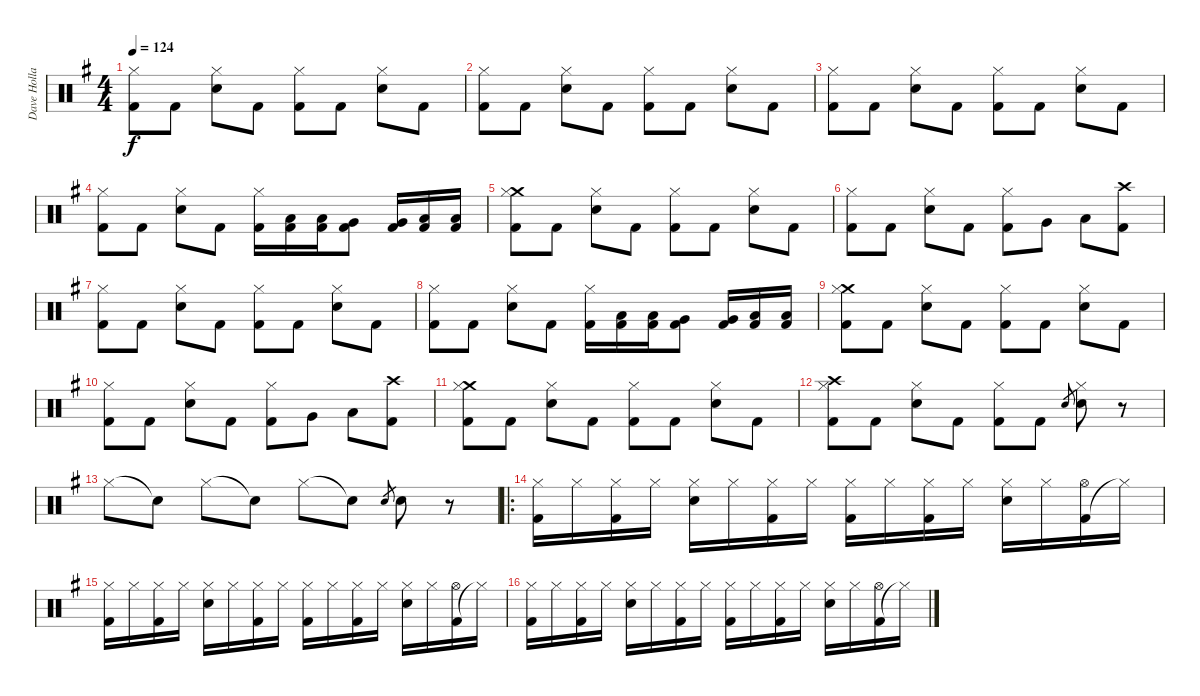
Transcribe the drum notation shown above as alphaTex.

\track ("Dave Holland" "Dave Holla") {instrument percussion}
\staff {score}
\articulation defaults
\ts (4 4)
\tempo 124
\clef neutral
\ks g
("Kick (hit) 2" "Hi-Hat (closed)").8{dy f} "Kick (hit) 2".8 ("Snare (hit) 2" "Hi-Hat (closed)").8 "Kick (hit) 2".8 ("Kick (hit) 2" "Hi-Hat (closed)").8 "Kick (hit) 2".8 ("Snare (hit) 2" "Hi-Hat (closed)").8 "Kick (hit) 2".8 |
("Kick (hit) 2" "Hi-Hat (closed)").8 "Kick (hit) 2".8 ("Snare (hit) 2" "Hi-Hat (closed)").8 "Kick (hit) 2".8 ("Kick (hit) 2" "Hi-Hat (closed)").8 "Kick (hit) 2".8 ("Snare (hit) 2" "Hi-Hat (closed)").8 "Kick (hit) 2".8 |
("Kick (hit) 2" "Hi-Hat (closed)").8 "Kick (hit) 2".8 ("Snare (hit) 2" "Hi-Hat (closed)").8 "Kick (hit) 2".8 ("Kick (hit) 2" "Hi-Hat (closed)").8 "Kick (hit) 2".8 ("Snare (hit) 2" "Hi-Hat (closed)").8 "Kick (hit) 2".8 |
("Kick (hit) 2" "Hi-Hat (closed)").8 "Kick (hit) 2".8 ("Snare (hit) 2" "Hi-Hat (closed)").8 "Kick (hit) 2".8 ("Kick (hit) 2" "Hi-Hat (closed)").16 ("Kick (hit) 2" "Low Tom (hit)").16 ("Kick (hit) 2" "Low Tom (hit)").16 ("Kick (hit) 2" "Very Low Tom (hit)").8 ("Kick (hit) 2" "Very Low Tom (hit)").16 ("Kick (hit) 2" "Low Floor Tom (hit)").16 ("Kick (hit) 2" "Low Floor Tom (hit)").16 |
("Kick (hit) 2" "Crash medium (hit)" "Hi-Hat (closed)").8 "Kick (hit) 2".8 ("Snare (hit) 2" "Hi-Hat (closed)").8 "Kick (hit) 2".8 ("Kick (hit) 2" "Hi-Hat (closed)").8 "Kick (hit) 2".8 ("Snare (hit) 2" "Hi-Hat (closed)").8 "Kick (hit) 2".8 |
("Kick (hit) 2" "Hi-Hat (closed)").8 "Kick (hit) 2".8 ("Snare (hit) 2" "Hi-Hat (closed)").8 "Kick (hit) 2".8 ("Kick (hit) 2" "Hi-Hat (closed)").8 "Very Low Tom (hit)".8 "Low Floor Tom (hit)".8 ("Crash high (hit)" "Kick (hit) 2").8 |
("Kick (hit) 2" "Hi-Hat (closed)").8 "Kick (hit) 2".8 ("Snare (hit) 2" "Hi-Hat (closed)").8 "Kick (hit) 2".8 ("Kick (hit) 2" "Hi-Hat (closed)").8 "Kick (hit) 2".8 ("Snare (hit) 2" "Hi-Hat (closed)").8 "Kick (hit) 2".8 |
("Kick (hit) 2" "Hi-Hat (closed)").8 "Kick (hit) 2".8 ("Snare (hit) 2" "Hi-Hat (closed)").8 "Kick (hit) 2".8 ("Kick (hit) 2" "Hi-Hat (closed)").16 ("Kick (hit) 2" "Low Tom (hit)").16 ("Kick (hit) 2" "Low Tom (hit)").16 ("Kick (hit) 2" "Very Low Tom (hit)").8 ("Kick (hit) 2" "Very Low Tom (hit)").16 ("Kick (hit) 2" "Low Floor Tom (hit)").16 ("Kick (hit) 2" "Low Floor Tom (hit)").16 |
("Kick (hit) 2" "Crash medium (hit)" "Hi-Hat (closed)").8 "Kick (hit) 2".8 ("Snare (hit) 2" "Hi-Hat (closed)").8 "Kick (hit) 2".8 ("Kick (hit) 2" "Hi-Hat (closed)").8 "Kick (hit) 2".8 ("Snare (hit) 2" "Hi-Hat (closed)").8 "Kick (hit) 2".8 |
("Kick (hit) 2" "Hi-Hat (closed)").8 "Kick (hit) 2".8 ("Snare (hit) 2" "Hi-Hat (closed)").8 "Kick (hit) 2".8 ("Kick (hit) 2" "Hi-Hat (closed)").8 "Very Low Tom (hit)".8 "Low Floor Tom (hit)".8 ("Crash high (hit)" "Kick (hit) 2").8 |
("Kick (hit) 2" "Crash medium (hit)" "Hi-Hat (closed)").8 "Kick (hit) 2".8 ("Snare (hit) 2" "Hi-Hat (closed)").8 "Kick (hit) 2".8 ("Kick (hit) 2" "Hi-Hat (closed)").8 "Kick (hit) 2".8 ("Snare (hit) 2" "Hi-Hat (closed)").8 "Kick (hit) 2".8 |
("Kick (hit) 2" "Crash high (hit)" "Hi-Hat (closed)").8 "Kick (hit) 2".8 ("Snare (hit) 2" "Hi-Hat (closed)").8 "Kick (hit) 2".8 ("Kick (hit) 2" "Hi-Hat (closed)").8 "Kick (hit) 2".8 "Snare (hit) 2".8{gr} ("Snare (hit) 2" "Hi-Hat (closed)").8 r.8 |
"Hi-Hat (closed)".8 "Snare (hit)"{t}.8 "Hi-Hat (closed)".8 "Snare (hit)"{t}.8 "Hi-Hat (closed)".8 "Snare (hit)"{t}.8 "Snare (hit) 2".8{gr} "Snare (hit) 2".8 r.8 |
\ro
("Kick (hit) 2" "Hi-Hat (closed)").16 "Hi-Hat (closed)".16 ("Kick (hit) 2" "Hi-Hat (closed)").16 "Hi-Hat (closed)".16 ("Snare (hit) 2" "Hi-Hat (closed)").16 "Hi-Hat (closed)".16 ("Kick (hit) 2" "Hi-Hat (closed)").16 "Hi-Hat (closed)".16 ("Kick (hit) 2" "Hi-Hat (closed)").16 "Hi-Hat (closed)".16 ("Kick (hit) 2" "Hi-Hat (closed)").16 "Hi-Hat (closed)".16 ("Snare (hit) 2" "Hi-Hat (closed)").16 "Hi-Hat (closed)".16 ("Kick (hit) 2" "Hi-Hat (open)").16 "Hi-Hat (closed)"{t}.16 |
("Kick (hit) 2" "Hi-Hat (closed)").16 "Hi-Hat (closed)".16 ("Kick (hit) 2" "Hi-Hat (closed)").16 "Hi-Hat (closed)".16 ("Snare (hit) 2" "Hi-Hat (closed)").16 "Hi-Hat (closed)".16 ("Kick (hit) 2" "Hi-Hat (closed)").16 "Hi-Hat (closed)".16 ("Kick (hit) 2" "Hi-Hat (closed)").16 "Hi-Hat (closed)".16 ("Kick (hit) 2" "Hi-Hat (closed)").16 "Hi-Hat (closed)".16 ("Snare (hit) 2" "Hi-Hat (closed)").16 "Hi-Hat (closed)".16 ("Kick (hit) 2" "Hi-Hat (open)").16 "Hi-Hat (closed)"{t}.16 |
("Kick (hit) 2" "Hi-Hat (closed)").16 "Hi-Hat (closed)".16 ("Kick (hit) 2" "Hi-Hat (closed)").16 "Hi-Hat (closed)".16 ("Snare (hit) 2" "Hi-Hat (closed)").16 "Hi-Hat (closed)".16 ("Kick (hit) 2" "Hi-Hat (closed)").16 "Hi-Hat (closed)".16 ("Kick (hit) 2" "Hi-Hat (closed)").16 "Hi-Hat (closed)".16 ("Kick (hit) 2" "Hi-Hat (closed)").16 "Hi-Hat (closed)".16 ("Snare (hit) 2" "Hi-Hat (closed)").16 "Hi-Hat (closed)".16 ("Kick (hit) 2" "Hi-Hat (open)").16 "Hi-Hat (closed)"{t}.16
